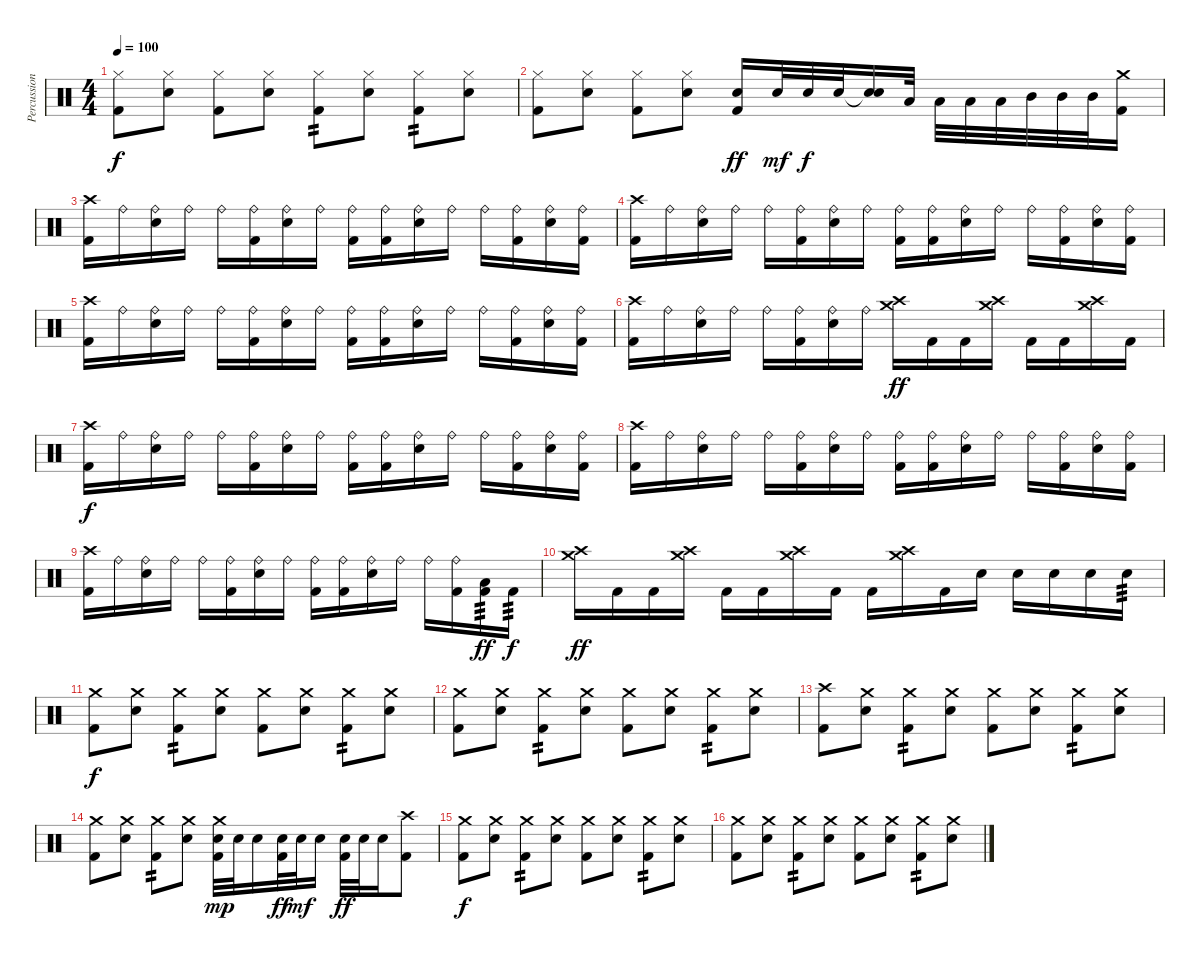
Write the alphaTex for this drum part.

\track ("Percussion" "Percussion") {instrument percussion}
\staff {score}
\articulation defaults
\ts (4 4)
\tempo 100
\clef neutral
\ks c
("Hi-Hat (closed)" "Kick (hit) 2").8{dy f} ("Hi-Hat (closed)" "Electric Snare (hit)").8 ("Hi-Hat (closed)" "Kick (hit) 2").8 ("Hi-Hat (closed)" "Electric Snare (hit)").8 ("Hi-Hat (closed)" "Kick (hit) 2").8{tp 2} ("Hi-Hat (closed)" "Electric Snare (hit)").8 ("Hi-Hat (closed)" "Kick (hit) 2").8{tp 2} ("Hi-Hat (closed)" "Electric Snare (hit)").8 |
("Hi-Hat (closed)" "Kick (hit) 2").8 ("Hi-Hat (closed)" "Electric Snare (hit)").8 ("Hi-Hat (closed)" "Kick (hit) 2").8 ("Hi-Hat (closed)" "Electric Snare (hit)").8 ("Electric Snare (hit)" "Kick (hit) 2").16{dy ff} "Electric Snare (hit)".32{dy mf} "Electric Snare (hit)".32{dy f} "Electric Snare (hit)".32 ("Snare (hit)"{t} "Electric Snare (hit)").16 "Low Tom (hit)".32 "Low Tom (hit)".32 "Low Tom (hit)".32 "Low Tom (hit)".32 "Mid Tom (hit)".32 "Mid Tom (hit)".32 "Mid Tom (hit)".32 ("Crash medium (hit)" "Kick (hit) 2").16 |
("Crash high (hit)" "Kick (hit) 2").16 "Ride (bell)".16 ("Ride (bell)" "Electric Snare (hit)").16 "Ride (bell)".16 "Ride (bell)".16 ("Ride (bell)" "Kick (hit) 2").16 ("Ride (bell)" "Electric Snare (hit)").16 "Ride (bell)".16 ("Ride (bell)" "Kick (hit) 2").16 ("Ride (bell)" "Kick (hit) 2").16 ("Ride (bell)" "Electric Snare (hit)").16 "Ride (bell)".16 "Ride (bell)".16 ("Ride (bell)" "Kick (hit) 2").16 ("Ride (bell)" "Electric Snare (hit)").16 ("Ride (bell)" "Kick (hit) 2").16 |
("Crash high (hit)" "Kick (hit) 2").16 "Ride (bell)".16 ("Ride (bell)" "Electric Snare (hit)").16 "Ride (bell)".16 "Ride (bell)".16 ("Ride (bell)" "Kick (hit) 2").16 ("Ride (bell)" "Electric Snare (hit)").16 "Ride (bell)".16 ("Ride (bell)" "Kick (hit) 2").16 ("Ride (bell)" "Kick (hit) 2").16 ("Ride (bell)" "Electric Snare (hit)").16 "Ride (bell)".16 "Ride (bell)".16 ("Ride (bell)" "Kick (hit) 2").16 ("Ride (bell)" "Electric Snare (hit)").16 ("Ride (bell)" "Kick (hit) 2").16 |
("Crash high (hit)" "Kick (hit) 2").16 "Ride (bell)".16 ("Ride (bell)" "Electric Snare (hit)").16 "Ride (bell)".16 "Ride (bell)".16 ("Ride (bell)" "Kick (hit) 2").16 ("Ride (bell)" "Electric Snare (hit)").16 "Ride (bell)".16 ("Ride (bell)" "Kick (hit) 2").16 ("Ride (bell)" "Kick (hit) 2").16 ("Ride (bell)" "Electric Snare (hit)").16 "Ride (bell)".16 "Ride (bell)".16 ("Ride (bell)" "Kick (hit) 2").16 ("Ride (bell)" "Electric Snare (hit)").16 ("Ride (bell)" "Kick (hit) 2").16 |
("Crash high (hit)" "Kick (hit) 2").16 "Ride (bell)".16 ("Ride (bell)" "Electric Snare (hit)").16 "Ride (bell)".16 "Ride (bell)".16 ("Ride (bell)" "Kick (hit) 2").16 ("Ride (bell)" "Electric Snare (hit)").16 "Ride (bell)".16 ("Crash high (hit)" "Crash medium (hit)").16{dy ff} "Kick (hit) 2".16 "Kick (hit) 2".16 ("Crash high (hit)" "Crash medium (hit)").16 "Kick (hit) 2".16 "Kick (hit) 2".16 ("Crash high (hit)" "Crash medium (hit)").16 "Kick (hit) 2".16 |
("Crash high (hit)" "Kick (hit) 2").16{dy f} "Ride (bell)".16 ("Ride (bell)" "Electric Snare (hit)").16 "Ride (bell)".16 "Ride (bell)".16 ("Ride (bell)" "Kick (hit) 2").16 ("Ride (bell)" "Electric Snare (hit)").16 "Ride (bell)".16 ("Ride (bell)" "Kick (hit) 2").16 ("Ride (bell)" "Kick (hit) 2").16 ("Ride (bell)" "Electric Snare (hit)").16 "Ride (bell)".16 "Ride (bell)".16 ("Ride (bell)" "Kick (hit) 2").16 ("Ride (bell)" "Electric Snare (hit)").16 ("Ride (bell)" "Kick (hit) 2").16 |
("Crash high (hit)" "Kick (hit) 2").16 "Ride (bell)".16 ("Ride (bell)" "Electric Snare (hit)").16 "Ride (bell)".16 "Ride (bell)".16 ("Ride (bell)" "Kick (hit) 2").16 ("Ride (bell)" "Electric Snare (hit)").16 "Ride (bell)".16 ("Ride (bell)" "Kick (hit) 2").16 ("Ride (bell)" "Kick (hit) 2").16 ("Ride (bell)" "Electric Snare (hit)").16 "Ride (bell)".16 "Ride (bell)".16 ("Ride (bell)" "Kick (hit) 2").16 ("Ride (bell)" "Electric Snare (hit)").16 ("Ride (bell)" "Kick (hit) 2").16 |
("Crash high (hit)" "Kick (hit) 2").16 "Ride (bell)".16 ("Ride (bell)" "Electric Snare (hit)").16 "Ride (bell)".16 "Ride (bell)".16 ("Ride (bell)" "Kick (hit) 2").16 ("Ride (bell)" "Electric Snare (hit)").16 "Ride (bell)".16 ("Ride (bell)" "Kick (hit) 2").16 ("Ride (bell)" "Kick (hit) 2").16 ("Ride (bell)" "Electric Snare (hit)").16 "Ride (bell)".16 "Ride (bell)".16 ("Ride (bell)" "Kick (hit) 2").16 ("Low Tom (hit)" "Kick (hit) 2").16{tp 3 dy ff} "Kick (hit) 2".16{tp 3 dy f} |
("Crash high (hit)" "Crash medium (hit)").16{dy ff} "Kick (hit) 2".16 "Kick (hit) 2".16 ("Crash high (hit)" "Crash medium (hit)").16 "Kick (hit) 2".16 "Kick (hit) 2".16 ("Crash high (hit)" "Crash medium (hit)").16 "Kick (hit) 2".16 "Kick (hit) 2".16 ("Crash high (hit)" "Crash medium (hit)").16 "Kick (hit) 2".16 "Electric Snare (hit)".16 "Electric Snare (hit)".16 "Electric Snare (hit)".16 "Electric Snare (hit)".16 "Electric Snare (hit)".16{tp 3} |
("Crash medium (hit)" "Kick (hit) 2").8{dy f} ("Crash medium (hit)" "Electric Snare (hit)").8 ("Crash medium (hit)" "Kick (hit) 2").8{tp 2} ("Crash medium (hit)" "Electric Snare (hit)").8 ("Crash medium (hit)" "Kick (hit) 2").8 ("Crash medium (hit)" "Electric Snare (hit)").8 ("Crash medium (hit)" "Kick (hit) 2").8{tp 2} ("Crash medium (hit)" "Electric Snare (hit)").8 |
("Crash medium (hit)" "Kick (hit) 2").8 ("Crash medium (hit)" "Electric Snare (hit)").8 ("Crash medium (hit)" "Kick (hit) 2").8{tp 2} ("Crash medium (hit)" "Electric Snare (hit)").8 ("Crash medium (hit)" "Kick (hit) 2").8 ("Crash medium (hit)" "Electric Snare (hit)").8 ("Crash medium (hit)" "Kick (hit) 2").8{tp 2} ("Crash medium (hit)" "Electric Snare (hit)").8 |
("Crash high (hit)" "Kick (hit) 2").8 ("Crash medium (hit)" "Electric Snare (hit)").8 ("Crash medium (hit)" "Kick (hit) 2").8{tp 2} ("Crash medium (hit)" "Electric Snare (hit)").8 ("Crash medium (hit)" "Kick (hit) 2").8 ("Crash medium (hit)" "Electric Snare (hit)").8 ("Crash medium (hit)" "Kick (hit) 2").8{tp 2} ("Crash medium (hit)" "Electric Snare (hit)").8 |
("Crash medium (hit)" "Kick (hit) 2").8 ("Crash medium (hit)" "Electric Snare (hit)").8 ("Crash medium (hit)" "Kick (hit) 2").8{tp 2} ("Crash medium (hit)" "Electric Snare (hit)").8 ("Crash medium (hit)" "Electric Snare (hit)" "Kick (hit) 2").32{dy mp} "Electric Snare (hit)".32 "Electric Snare (hit)".16 ("Electric Snare (hit)" "Kick (hit) 2").32{dy ff} "Electric Snare (hit)".32{dy mf} "Electric Snare (hit)".16 ("Electric Snare (hit)" "Kick (hit) 2").32{dy ff} "Electric Snare (hit)".32 "Electric Snare (hit)".16 ("Crash high (hit)" "Kick (hit) 2").8 |
("Crash medium (hit)" "Kick (hit) 2").8{dy f} ("Crash medium (hit)" "Electric Snare (hit)").8 ("Crash medium (hit)" "Kick (hit) 2").8{tp 2} ("Crash medium (hit)" "Electric Snare (hit)").8 ("Crash medium (hit)" "Kick (hit) 2").8 ("Crash medium (hit)" "Electric Snare (hit)").8 ("Crash medium (hit)" "Kick (hit) 2").8{tp 2} ("Crash medium (hit)" "Electric Snare (hit)").8 |
("Crash medium (hit)" "Kick (hit) 2").8 ("Crash medium (hit)" "Electric Snare (hit)").8 ("Crash medium (hit)" "Kick (hit) 2").8{tp 2} ("Crash medium (hit)" "Electric Snare (hit)").8 ("Crash medium (hit)" "Kick (hit) 2").8 ("Crash medium (hit)" "Electric Snare (hit)").8 ("Crash medium (hit)" "Kick (hit) 2").8{tp 2} ("Crash medium (hit)" "Electric Snare (hit)").8
